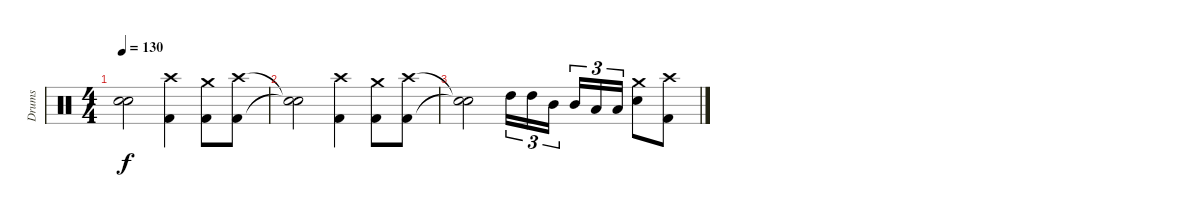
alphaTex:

\track ("Drums" "Drums") {instrument percussion}
\staff {score}
\articulation defaults
\ts (4 4)
\tempo 130
\clef neutral
\ks c
("Snare (hit)"{t} "Snare (hit)"{t}).2{dy f} ("Kick (hit) 2" "Crash high (hit)").4 ("Kick (hit) 2" "Crash medium (hit)").8 ("Kick (hit) 2" "Crash high (hit)").8 |
("Snare (hit)"{t} "Snare (hit)"{t}).2 ("Kick (hit) 2" "Crash high (hit)").4 ("Kick (hit) 2" "Crash medium (hit)").8 ("Kick (hit) 2" "Crash high (hit)").8 |
("Snare (hit)"{t} "Snare (hit)"{t}).2 "High Tom (hit)".16{tu (3 2)} "High Tom (hit)".16{tu (3 2)} "Mid Tom (hit)".16{tu (3 2) beam splitsecondary} "Mid Tom (hit)".16{tu (3 2)} "Low Tom (hit)".16{tu (3 2)} "Low Tom (hit)".16{tu (3 2)} ("Snare (hit) 2" "Crash medium (hit)").8 ("Kick (hit) 2" "Crash high (hit)").8
